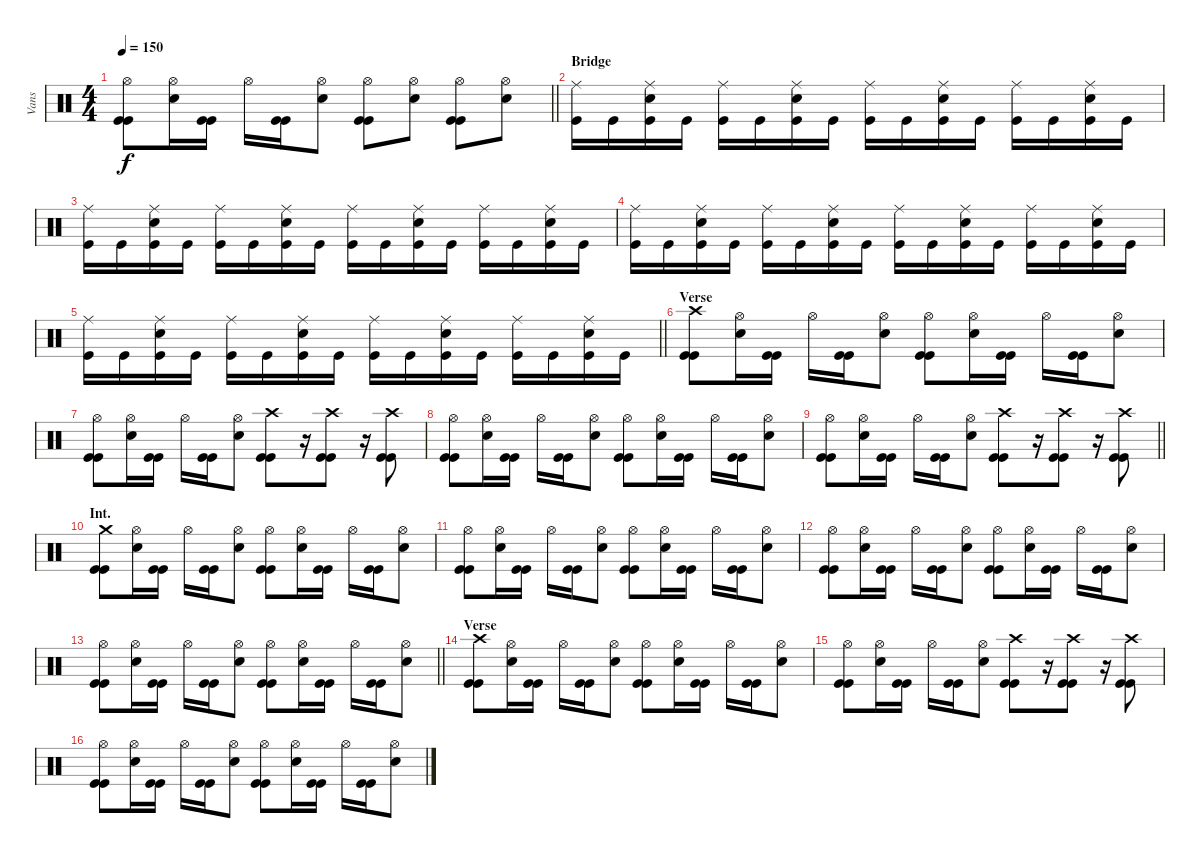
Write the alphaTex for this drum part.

\track ("Vans" "Vans") {instrument percussion}
\staff {score}
\articulation defaults
\ts (4 4)
\tempo 150
\clef neutral
\barLineRight lightlight
\ks c
("Hi-Hat (open)" "Kick (hit)" "Kick (hit)").8{dy f} ("Hi-Hat (open)" "Snare (hit) 2").16 ("Kick (hit)" "Kick (hit)").16 "Hi-Hat (open)".16 ("Kick (hit)" "Kick (hit)").16 ("Hi-Hat (open)" "Snare (hit) 2").8 ("Hi-Hat (open)" "Kick (hit)" "Kick (hit)").8 ("Hi-Hat (open)" "Snare (hit) 2").8 ("Hi-Hat (open)" "Kick (hit)" "Kick (hit)").8 ("Hi-Hat (open)" "Snare (hit) 2").8 |
\section ("" "Bridge")
("Ride (middle)" "Kick (hit)").16 "Kick (hit)".16 ("Ride (middle)" "Kick (hit)" "Snare (hit) 2").16 "Kick (hit)".16 ("Ride (middle)" "Kick (hit)").16 "Kick (hit)".16 ("Ride (middle)" "Kick (hit)" "Snare (hit) 2").16 "Kick (hit)".16 ("Ride (middle)" "Kick (hit)").16 "Kick (hit)".16 ("Ride (middle)" "Kick (hit)" "Snare (hit) 2").16 "Kick (hit)".16 ("Ride (middle)" "Kick (hit)").16 "Kick (hit)".16 ("Ride (middle)" "Kick (hit)" "Snare (hit) 2").16 "Kick (hit)".16 |
("Ride (middle)" "Kick (hit)").16 "Kick (hit)".16 ("Ride (middle)" "Kick (hit)" "Snare (hit) 2").16 "Kick (hit)".16 ("Ride (middle)" "Kick (hit)").16 "Kick (hit)".16 ("Ride (middle)" "Kick (hit)" "Snare (hit) 2").16 "Kick (hit)".16 ("Ride (middle)" "Kick (hit)").16 "Kick (hit)".16 ("Ride (middle)" "Kick (hit)" "Snare (hit) 2").16 "Kick (hit)".16 ("Ride (middle)" "Kick (hit)").16 "Kick (hit)".16 ("Ride (middle)" "Kick (hit)" "Snare (hit) 2").16 "Kick (hit)".16 |
("Ride (middle)" "Kick (hit)").16 "Kick (hit)".16 ("Ride (middle)" "Kick (hit)" "Snare (hit) 2").16 "Kick (hit)".16 ("Ride (middle)" "Kick (hit)").16 "Kick (hit)".16 ("Ride (middle)" "Kick (hit)" "Snare (hit) 2").16 "Kick (hit)".16 ("Ride (middle)" "Kick (hit)").16 "Kick (hit)".16 ("Ride (middle)" "Kick (hit)" "Snare (hit) 2").16 "Kick (hit)".16 ("Ride (middle)" "Kick (hit)").16 "Kick (hit)".16 ("Ride (middle)" "Kick (hit)" "Snare (hit) 2").16 "Kick (hit)".16 |
\barLineRight lightlight
("Ride (middle)" "Kick (hit)").16 "Kick (hit)".16 ("Ride (middle)" "Kick (hit)" "Snare (hit) 2").16 "Kick (hit)".16 ("Ride (middle)" "Kick (hit)").16 "Kick (hit)".16 ("Ride (middle)" "Kick (hit)" "Snare (hit) 2").16 "Kick (hit)".16 ("Ride (middle)" "Kick (hit)").16 "Kick (hit)".16 ("Ride (middle)" "Kick (hit)" "Snare (hit) 2").16 "Kick (hit)".16 ("Ride (middle)" "Kick (hit)").16 "Kick (hit)".16 ("Ride (middle)" "Kick (hit)" "Snare (hit) 2").16 "Kick (hit)".16 |
\section ("" "Verse")
("Crash high (hit)" "Kick (hit)" "Kick (hit)").8 ("Hi-Hat (open)" "Snare (hit) 2").16 ("Kick (hit)" "Kick (hit)").16 "Hi-Hat (open)".16 ("Kick (hit)" "Kick (hit)").16 ("Hi-Hat (open)" "Snare (hit) 2").8 ("Hi-Hat (open)" "Kick (hit)" "Kick (hit)").8 ("Hi-Hat (open)" "Snare (hit) 2").16 ("Kick (hit)" "Kick (hit)").16 "Hi-Hat (open)".16 ("Kick (hit)" "Kick (hit)").16 ("Hi-Hat (open)" "Snare (hit) 2").8 |
("Hi-Hat (open)" "Kick (hit)" "Kick (hit)").8 ("Hi-Hat (open)" "Snare (hit) 2").16 ("Kick (hit)" "Kick (hit)").16 "Hi-Hat (open)".16 ("Kick (hit)" "Kick (hit)").16 ("Hi-Hat (open)" "Snare (hit) 2").8 ("Crash high (hit)" "Kick (hit)" "Kick (hit)").8 r.16 ("Crash high (hit)" "Kick (hit)" "Kick (hit)").8 r.16 ("Crash high (hit)" "Kick (hit)" "Kick (hit)").8 |
("Hi-Hat (open)" "Kick (hit)" "Kick (hit)").8 ("Hi-Hat (open)" "Snare (hit) 2").16 ("Kick (hit)" "Kick (hit)").16 "Hi-Hat (open)".16 ("Kick (hit)" "Kick (hit)").16 ("Hi-Hat (open)" "Snare (hit) 2").8 ("Hi-Hat (open)" "Kick (hit)" "Kick (hit)").8 ("Hi-Hat (open)" "Snare (hit) 2").16 ("Kick (hit)" "Kick (hit)").16 "Hi-Hat (open)".16 ("Kick (hit)" "Kick (hit)").16 ("Hi-Hat (open)" "Snare (hit) 2").8 |
\barLineRight lightlight
("Hi-Hat (open)" "Kick (hit)" "Kick (hit)").8 ("Hi-Hat (open)" "Snare (hit) 2").16 ("Kick (hit)" "Kick (hit)").16 "Hi-Hat (open)".16 ("Kick (hit)" "Kick (hit)").16 ("Hi-Hat (open)" "Snare (hit) 2").8 ("Crash high (hit)" "Kick (hit)" "Kick (hit)").8 r.16 ("Crash high (hit)" "Kick (hit)" "Kick (hit)").8 r.16 ("Crash high (hit)" "Kick (hit)" "Kick (hit)").8 |
\section ("" "Int.")
("Crash medium (hit)" "Kick (hit)" "Kick (hit)").8 ("Hi-Hat (open)" "Snare (hit) 2").16 ("Kick (hit)" "Kick (hit)").16 "Hi-Hat (open)".16 ("Kick (hit)" "Kick (hit)").16 ("Hi-Hat (open)" "Snare (hit) 2").8 ("Hi-Hat (open)" "Kick (hit)" "Kick (hit)").8 ("Hi-Hat (open)" "Snare (hit) 2").16 ("Kick (hit)" "Kick (hit)").16 "Hi-Hat (open)".16 ("Kick (hit)" "Kick (hit)").16 ("Hi-Hat (open)" "Snare (hit) 2").8 |
("Hi-Hat (open)" "Kick (hit)" "Kick (hit)").8 ("Hi-Hat (open)" "Snare (hit) 2").16 ("Kick (hit)" "Kick (hit)").16 "Hi-Hat (open)".16 ("Kick (hit)" "Kick (hit)").16 ("Hi-Hat (open)" "Snare (hit) 2").8 ("Hi-Hat (open)" "Kick (hit)" "Kick (hit)").8 ("Hi-Hat (open)" "Snare (hit) 2").16 ("Kick (hit)" "Kick (hit)").16 "Hi-Hat (open)".16 ("Kick (hit)" "Kick (hit)").16 ("Hi-Hat (open)" "Snare (hit) 2").8 |
("Hi-Hat (open)" "Kick (hit)" "Kick (hit)").8 ("Hi-Hat (open)" "Snare (hit) 2").16 ("Kick (hit)" "Kick (hit)").16 "Hi-Hat (open)".16 ("Kick (hit)" "Kick (hit)").16 ("Hi-Hat (open)" "Snare (hit) 2").8 ("Hi-Hat (open)" "Kick (hit)" "Kick (hit)").8 ("Hi-Hat (open)" "Snare (hit) 2").16 ("Kick (hit)" "Kick (hit)").16 "Hi-Hat (open)".16 ("Kick (hit)" "Kick (hit)").16 ("Hi-Hat (open)" "Snare (hit) 2").8 |
\barLineRight lightlight
("Hi-Hat (open)" "Kick (hit)" "Kick (hit)").8 ("Hi-Hat (open)" "Snare (hit) 2").16 ("Kick (hit)" "Kick (hit)").16 "Hi-Hat (open)".16 ("Kick (hit)" "Kick (hit)").16 ("Hi-Hat (open)" "Snare (hit) 2").8 ("Hi-Hat (open)" "Kick (hit)" "Kick (hit)").8 ("Hi-Hat (open)" "Snare (hit) 2").16 ("Kick (hit)" "Kick (hit)").16 "Hi-Hat (open)".16 ("Kick (hit)" "Kick (hit)").16 ("Hi-Hat (open)" "Snare (hit) 2").8 |
\section ("" "Verse")
("Crash high (hit)" "Kick (hit)" "Kick (hit)").8 ("Hi-Hat (open)" "Snare (hit) 2").16 ("Kick (hit)" "Kick (hit)").16 "Hi-Hat (open)".16 ("Kick (hit)" "Kick (hit)").16 ("Hi-Hat (open)" "Snare (hit) 2").8 ("Hi-Hat (open)" "Kick (hit)" "Kick (hit)").8 ("Hi-Hat (open)" "Snare (hit) 2").16 ("Kick (hit)" "Kick (hit)").16 "Hi-Hat (open)".16 ("Kick (hit)" "Kick (hit)").16 ("Hi-Hat (open)" "Snare (hit) 2").8 |
("Hi-Hat (open)" "Kick (hit)" "Kick (hit)").8 ("Hi-Hat (open)" "Snare (hit) 2").16 ("Kick (hit)" "Kick (hit)").16 "Hi-Hat (open)".16 ("Kick (hit)" "Kick (hit)").16 ("Hi-Hat (open)" "Snare (hit) 2").8 ("Crash high (hit)" "Kick (hit)" "Kick (hit)").8 r.16 ("Crash high (hit)" "Kick (hit)" "Kick (hit)").8 r.16 ("Crash high (hit)" "Kick (hit)" "Kick (hit)").8 |
("Hi-Hat (open)" "Kick (hit)" "Kick (hit)").8 ("Hi-Hat (open)" "Snare (hit) 2").16 ("Kick (hit)" "Kick (hit)").16 "Hi-Hat (open)".16 ("Kick (hit)" "Kick (hit)").16 ("Hi-Hat (open)" "Snare (hit) 2").8 ("Hi-Hat (open)" "Kick (hit)" "Kick (hit)").8 ("Hi-Hat (open)" "Snare (hit) 2").16 ("Kick (hit)" "Kick (hit)").16 "Hi-Hat (open)".16 ("Kick (hit)" "Kick (hit)").16 ("Hi-Hat (open)" "Snare (hit) 2").8
